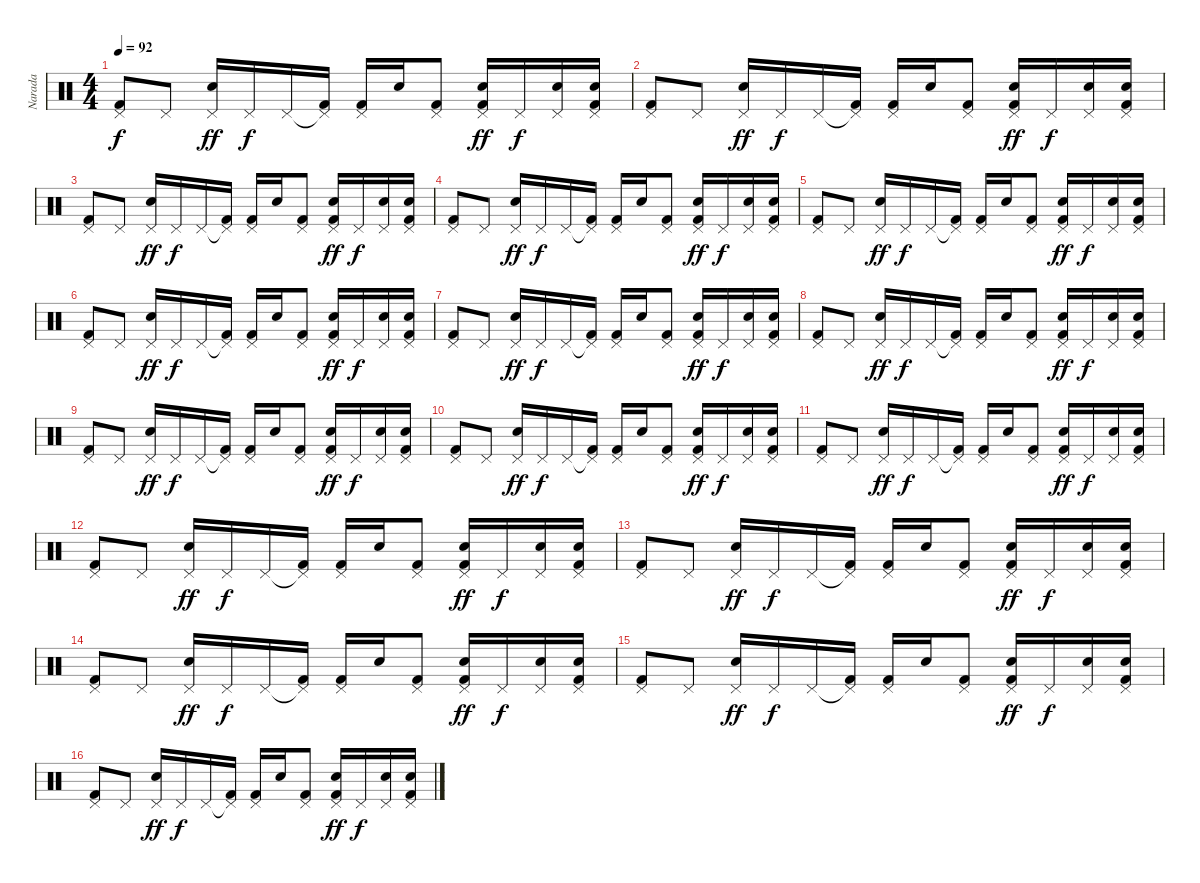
\track ("Narada" "Narada") {instrument percussion}
\staff {score}
\articulation defaults
\ts (4 4)
\tempo 92
\clef neutral
\ks c
("Pedal Hi-Hat (hit)" "Kick (hit) 2").8{dy f} "Pedal Hi-Hat (hit)".8 ("Pedal Hi-Hat (hit)" "Snare (hit) 2").16{dy ff} "Pedal Hi-Hat (hit)".16{dy f} "Pedal Hi-Hat (hit)".16 ("Pedal Hi-Hat (hit)"{t} "Kick (hit) 2").16 ("Pedal Hi-Hat (hit)" "Kick (hit) 2").16 "Snare (hit) 2".16 ("Pedal Hi-Hat (hit)" "Kick (hit) 2").8 ("Pedal Hi-Hat (hit)" "Snare (hit) 2" "Kick (hit) 2").16{dy ff} "Pedal Hi-Hat (hit)".16{dy f} ("Pedal Hi-Hat (hit)" "Snare (hit) 2").16 ("Pedal Hi-Hat (hit)" "Snare (hit) 2" "Kick (hit) 2").16 |
("Pedal Hi-Hat (hit)" "Kick (hit) 2").8 "Pedal Hi-Hat (hit)".8 ("Pedal Hi-Hat (hit)" "Snare (hit) 2").16{dy ff} "Pedal Hi-Hat (hit)".16{dy f} "Pedal Hi-Hat (hit)".16 ("Pedal Hi-Hat (hit)"{t} "Kick (hit) 2").16 ("Pedal Hi-Hat (hit)" "Kick (hit) 2").16 "Snare (hit) 2".16 ("Pedal Hi-Hat (hit)" "Kick (hit) 2").8 ("Pedal Hi-Hat (hit)" "Snare (hit) 2" "Kick (hit) 2").16{dy ff} "Pedal Hi-Hat (hit)".16{dy f} ("Pedal Hi-Hat (hit)" "Snare (hit) 2").16 ("Pedal Hi-Hat (hit)" "Snare (hit) 2" "Kick (hit) 2").16 |
("Pedal Hi-Hat (hit)" "Kick (hit) 2").8 "Pedal Hi-Hat (hit)".8 ("Pedal Hi-Hat (hit)" "Snare (hit) 2").16{dy ff} "Pedal Hi-Hat (hit)".16{dy f} "Pedal Hi-Hat (hit)".16 ("Pedal Hi-Hat (hit)"{t} "Kick (hit) 2").16 ("Pedal Hi-Hat (hit)" "Kick (hit) 2").16 "Snare (hit) 2".16 ("Pedal Hi-Hat (hit)" "Kick (hit) 2").8 ("Pedal Hi-Hat (hit)" "Snare (hit) 2" "Kick (hit) 2").16{dy ff} "Pedal Hi-Hat (hit)".16{dy f} ("Pedal Hi-Hat (hit)" "Snare (hit) 2").16 ("Pedal Hi-Hat (hit)" "Snare (hit) 2" "Kick (hit) 2").16 |
("Pedal Hi-Hat (hit)" "Kick (hit) 2").8 "Pedal Hi-Hat (hit)".8 ("Pedal Hi-Hat (hit)" "Snare (hit) 2").16{dy ff} "Pedal Hi-Hat (hit)".16{dy f} "Pedal Hi-Hat (hit)".16 ("Pedal Hi-Hat (hit)"{t} "Kick (hit) 2").16 ("Pedal Hi-Hat (hit)" "Kick (hit) 2").16 "Snare (hit) 2".16 ("Pedal Hi-Hat (hit)" "Kick (hit) 2").8 ("Pedal Hi-Hat (hit)" "Snare (hit) 2" "Kick (hit) 2").16{dy ff} "Pedal Hi-Hat (hit)".16{dy f} ("Pedal Hi-Hat (hit)" "Snare (hit) 2").16 ("Pedal Hi-Hat (hit)" "Snare (hit) 2" "Kick (hit) 2").16 |
("Pedal Hi-Hat (hit)" "Kick (hit) 2").8 "Pedal Hi-Hat (hit)".8 ("Pedal Hi-Hat (hit)" "Snare (hit) 2").16{dy ff} "Pedal Hi-Hat (hit)".16{dy f} "Pedal Hi-Hat (hit)".16 ("Pedal Hi-Hat (hit)"{t} "Kick (hit) 2").16 ("Pedal Hi-Hat (hit)" "Kick (hit) 2").16 "Snare (hit) 2".16 ("Pedal Hi-Hat (hit)" "Kick (hit) 2").8 ("Pedal Hi-Hat (hit)" "Snare (hit) 2" "Kick (hit) 2").16{dy ff} "Pedal Hi-Hat (hit)".16{dy f} ("Pedal Hi-Hat (hit)" "Snare (hit) 2").16 ("Pedal Hi-Hat (hit)" "Snare (hit) 2" "Kick (hit) 2").16 |
("Pedal Hi-Hat (hit)" "Kick (hit) 2").8 "Pedal Hi-Hat (hit)".8 ("Pedal Hi-Hat (hit)" "Snare (hit) 2").16{dy ff} "Pedal Hi-Hat (hit)".16{dy f} "Pedal Hi-Hat (hit)".16 ("Pedal Hi-Hat (hit)"{t} "Kick (hit) 2").16 ("Pedal Hi-Hat (hit)" "Kick (hit) 2").16 "Snare (hit) 2".16 ("Pedal Hi-Hat (hit)" "Kick (hit) 2").8 ("Pedal Hi-Hat (hit)" "Snare (hit) 2" "Kick (hit) 2").16{dy ff} "Pedal Hi-Hat (hit)".16{dy f} ("Pedal Hi-Hat (hit)" "Snare (hit) 2").16 ("Pedal Hi-Hat (hit)" "Snare (hit) 2" "Kick (hit) 2").16 |
("Pedal Hi-Hat (hit)" "Kick (hit) 2").8 "Pedal Hi-Hat (hit)".8 ("Pedal Hi-Hat (hit)" "Snare (hit) 2").16{dy ff} "Pedal Hi-Hat (hit)".16{dy f} "Pedal Hi-Hat (hit)".16 ("Pedal Hi-Hat (hit)"{t} "Kick (hit) 2").16 ("Pedal Hi-Hat (hit)" "Kick (hit) 2").16 "Snare (hit) 2".16 ("Pedal Hi-Hat (hit)" "Kick (hit) 2").8 ("Pedal Hi-Hat (hit)" "Snare (hit) 2" "Kick (hit) 2").16{dy ff} "Pedal Hi-Hat (hit)".16{dy f} ("Pedal Hi-Hat (hit)" "Snare (hit) 2").16 ("Pedal Hi-Hat (hit)" "Snare (hit) 2" "Kick (hit) 2").16 |
("Pedal Hi-Hat (hit)" "Kick (hit) 2").8 "Pedal Hi-Hat (hit)".8 ("Pedal Hi-Hat (hit)" "Snare (hit) 2").16{dy ff} "Pedal Hi-Hat (hit)".16{dy f} "Pedal Hi-Hat (hit)".16 ("Pedal Hi-Hat (hit)"{t} "Kick (hit) 2").16 ("Pedal Hi-Hat (hit)" "Kick (hit) 2").16 "Snare (hit) 2".16 ("Pedal Hi-Hat (hit)" "Kick (hit) 2").8 ("Pedal Hi-Hat (hit)" "Snare (hit) 2" "Kick (hit) 2").16{dy ff} "Pedal Hi-Hat (hit)".16{dy f} ("Pedal Hi-Hat (hit)" "Snare (hit) 2").16 ("Pedal Hi-Hat (hit)" "Snare (hit) 2" "Kick (hit) 2").16 |
("Pedal Hi-Hat (hit)" "Kick (hit) 2").8 "Pedal Hi-Hat (hit)".8 ("Pedal Hi-Hat (hit)" "Snare (hit) 2").16{dy ff} "Pedal Hi-Hat (hit)".16{dy f} "Pedal Hi-Hat (hit)".16 ("Pedal Hi-Hat (hit)"{t} "Kick (hit) 2").16 ("Pedal Hi-Hat (hit)" "Kick (hit) 2").16 "Snare (hit) 2".16 ("Pedal Hi-Hat (hit)" "Kick (hit) 2").8 ("Pedal Hi-Hat (hit)" "Snare (hit) 2" "Kick (hit) 2").16{dy ff} "Pedal Hi-Hat (hit)".16{dy f} ("Pedal Hi-Hat (hit)" "Snare (hit) 2").16 ("Pedal Hi-Hat (hit)" "Snare (hit) 2" "Kick (hit) 2").16 |
("Pedal Hi-Hat (hit)" "Kick (hit) 2").8 "Pedal Hi-Hat (hit)".8 ("Pedal Hi-Hat (hit)" "Snare (hit) 2").16{dy ff} "Pedal Hi-Hat (hit)".16{dy f} "Pedal Hi-Hat (hit)".16 ("Pedal Hi-Hat (hit)"{t} "Kick (hit) 2").16 ("Pedal Hi-Hat (hit)" "Kick (hit) 2").16 "Snare (hit) 2".16 ("Pedal Hi-Hat (hit)" "Kick (hit) 2").8 ("Pedal Hi-Hat (hit)" "Snare (hit) 2" "Kick (hit) 2").16{dy ff} "Pedal Hi-Hat (hit)".16{dy f} ("Pedal Hi-Hat (hit)" "Snare (hit) 2").16 ("Pedal Hi-Hat (hit)" "Snare (hit) 2" "Kick (hit) 2").16 |
("Pedal Hi-Hat (hit)" "Kick (hit) 2").8 "Pedal Hi-Hat (hit)".8 ("Pedal Hi-Hat (hit)" "Snare (hit) 2").16{dy ff} "Pedal Hi-Hat (hit)".16{dy f} "Pedal Hi-Hat (hit)".16 ("Pedal Hi-Hat (hit)"{t} "Kick (hit) 2").16 ("Pedal Hi-Hat (hit)" "Kick (hit) 2").16 "Snare (hit) 2".16 ("Pedal Hi-Hat (hit)" "Kick (hit) 2").8 ("Pedal Hi-Hat (hit)" "Snare (hit) 2" "Kick (hit) 2").16{dy ff} "Pedal Hi-Hat (hit)".16{dy f} ("Pedal Hi-Hat (hit)" "Snare (hit) 2").16 ("Pedal Hi-Hat (hit)" "Snare (hit) 2" "Kick (hit) 2").16 |
("Pedal Hi-Hat (hit)" "Kick (hit) 2").8 "Pedal Hi-Hat (hit)".8 ("Pedal Hi-Hat (hit)" "Snare (hit) 2").16{dy ff} "Pedal Hi-Hat (hit)".16{dy f} "Pedal Hi-Hat (hit)".16 ("Pedal Hi-Hat (hit)"{t} "Kick (hit) 2").16 ("Pedal Hi-Hat (hit)" "Kick (hit) 2").16 "Snare (hit) 2".16 ("Pedal Hi-Hat (hit)" "Kick (hit) 2").8 ("Pedal Hi-Hat (hit)" "Snare (hit) 2" "Kick (hit) 2").16{dy ff} "Pedal Hi-Hat (hit)".16{dy f} ("Pedal Hi-Hat (hit)" "Snare (hit) 2").16 ("Pedal Hi-Hat (hit)" "Snare (hit) 2" "Kick (hit) 2").16 |
("Pedal Hi-Hat (hit)" "Kick (hit) 2").8 "Pedal Hi-Hat (hit)".8 ("Pedal Hi-Hat (hit)" "Snare (hit) 2").16{dy ff} "Pedal Hi-Hat (hit)".16{dy f} "Pedal Hi-Hat (hit)".16 ("Pedal Hi-Hat (hit)"{t} "Kick (hit) 2").16 ("Pedal Hi-Hat (hit)" "Kick (hit) 2").16 "Snare (hit) 2".16 ("Pedal Hi-Hat (hit)" "Kick (hit) 2").8 ("Pedal Hi-Hat (hit)" "Snare (hit) 2" "Kick (hit) 2").16{dy ff} "Pedal Hi-Hat (hit)".16{dy f} ("Pedal Hi-Hat (hit)" "Snare (hit) 2").16 ("Pedal Hi-Hat (hit)" "Snare (hit) 2" "Kick (hit) 2").16 |
("Pedal Hi-Hat (hit)" "Kick (hit) 2").8 "Pedal Hi-Hat (hit)".8 ("Pedal Hi-Hat (hit)" "Snare (hit) 2").16{dy ff} "Pedal Hi-Hat (hit)".16{dy f} "Pedal Hi-Hat (hit)".16 ("Pedal Hi-Hat (hit)"{t} "Kick (hit) 2").16 ("Pedal Hi-Hat (hit)" "Kick (hit) 2").16 "Snare (hit) 2".16 ("Pedal Hi-Hat (hit)" "Kick (hit) 2").8 ("Pedal Hi-Hat (hit)" "Snare (hit) 2" "Kick (hit) 2").16{dy ff} "Pedal Hi-Hat (hit)".16{dy f} ("Pedal Hi-Hat (hit)" "Snare (hit) 2").16 ("Pedal Hi-Hat (hit)" "Snare (hit) 2" "Kick (hit) 2").16 |
("Pedal Hi-Hat (hit)" "Kick (hit) 2").8 "Pedal Hi-Hat (hit)".8 ("Pedal Hi-Hat (hit)" "Snare (hit) 2").16{dy ff} "Pedal Hi-Hat (hit)".16{dy f} "Pedal Hi-Hat (hit)".16 ("Pedal Hi-Hat (hit)"{t} "Kick (hit) 2").16 ("Pedal Hi-Hat (hit)" "Kick (hit) 2").16 "Snare (hit) 2".16 ("Pedal Hi-Hat (hit)" "Kick (hit) 2").8 ("Pedal Hi-Hat (hit)" "Snare (hit) 2" "Kick (hit) 2").16{dy ff} "Pedal Hi-Hat (hit)".16{dy f} ("Pedal Hi-Hat (hit)" "Snare (hit) 2").16 ("Pedal Hi-Hat (hit)" "Snare (hit) 2" "Kick (hit) 2").16 |
("Pedal Hi-Hat (hit)" "Kick (hit) 2").8 "Pedal Hi-Hat (hit)".8 ("Pedal Hi-Hat (hit)" "Snare (hit) 2").16{dy ff} "Pedal Hi-Hat (hit)".16{dy f} "Pedal Hi-Hat (hit)".16 ("Pedal Hi-Hat (hit)"{t} "Kick (hit) 2").16 ("Pedal Hi-Hat (hit)" "Kick (hit) 2").16 "Snare (hit) 2".16 ("Pedal Hi-Hat (hit)" "Kick (hit) 2").8 ("Pedal Hi-Hat (hit)" "Snare (hit) 2" "Kick (hit) 2").16{dy ff} "Pedal Hi-Hat (hit)".16{dy f} ("Pedal Hi-Hat (hit)" "Snare (hit) 2").16 ("Pedal Hi-Hat (hit)" "Snare (hit) 2" "Kick (hit) 2").16
